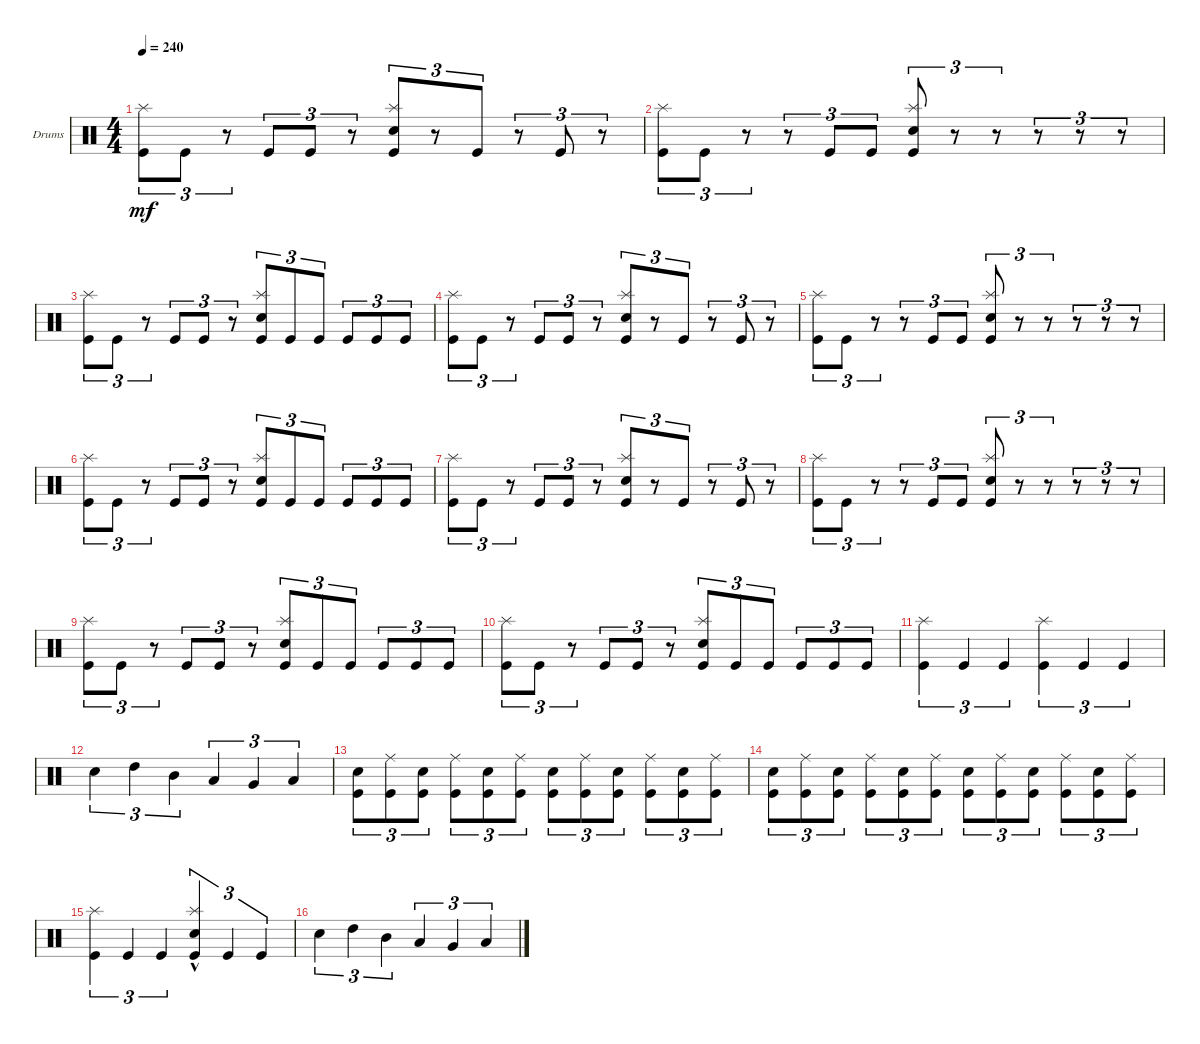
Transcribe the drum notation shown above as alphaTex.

\defaultSystemsLayout 4
\bracketExtendMode groupsimilarinstruments
\firstSystemTrackNameOrientation horizontal
\otherSystemsTrackNameOrientation horizontal
\track ("Drumkit" "Drums") {instrument percussion}
\staff {score}
\articulation defaults
\ts (4 4)
\tempo 240
\clef neutral
\ks c
("Kick (hit)" "Splash (hit)").8{tu (3 2) dy mf} "Kick (hit)".8{tu (3 2)} r.8{tu (3 2)} "Kick (hit)".8{tu (3 2)} "Kick (hit)".8{tu (3 2)} r.8{tu (3 2)} ("Kick (hit)" "Splash (hit)" "Snare (hit) 2").8{tu (3 2)} r.8{tu (3 2)} "Kick (hit)".8{tu (3 2)} r.8{tu (3 2)} "Kick (hit)".8{tu (3 2)} r.8{tu (3 2)} |
("Kick (hit)" "Splash (hit)").8{tu (3 2)} "Kick (hit)".8{tu (3 2)} r.8{tu (3 2)} r.8{tu (3 2)} "Kick (hit)".8{tu (3 2)} "Kick (hit)".8{tu (3 2)} ("Kick (hit)" "Splash (hit)" "Snare (hit) 2").8{tu (3 2)} r.8{tu (3 2)} r.8{tu (3 2)} r.8{tu (3 2)} r.8{tu (3 2)} r.8{tu (3 2)} |
("Kick (hit)" "Splash (hit)").8{tu (3 2)} "Kick (hit)".8{tu (3 2)} r.8{tu (3 2)} "Kick (hit)".8{tu (3 2)} "Kick (hit)".8{tu (3 2)} r.8{tu (3 2)} ("Kick (hit)" "Splash (hit)" "Snare (hit) 2").8{tu (3 2)} "Kick (hit)".8{tu (3 2)} "Kick (hit)".8{tu (3 2)} "Kick (hit)".8{tu (3 2)} "Kick (hit)".8{tu (3 2)} "Kick (hit)".8{tu (3 2)} |
("Kick (hit)" "Splash (hit)").8{tu (3 2)} "Kick (hit)".8{tu (3 2)} r.8{tu (3 2)} "Kick (hit)".8{tu (3 2)} "Kick (hit)".8{tu (3 2)} r.8{tu (3 2)} ("Kick (hit)" "Splash (hit)" "Snare (hit) 2").8{tu (3 2)} r.8{tu (3 2)} "Kick (hit)".8{tu (3 2)} r.8{tu (3 2)} "Kick (hit)".8{tu (3 2)} r.8{tu (3 2)} |
("Kick (hit)" "Splash (hit)").8{tu (3 2)} "Kick (hit)".8{tu (3 2)} r.8{tu (3 2)} r.8{tu (3 2)} "Kick (hit)".8{tu (3 2)} "Kick (hit)".8{tu (3 2)} ("Kick (hit)" "Splash (hit)" "Snare (hit) 2").8{tu (3 2)} r.8{tu (3 2)} r.8{tu (3 2)} r.8{tu (3 2)} r.8{tu (3 2)} r.8{tu (3 2)} |
("Kick (hit)" "Splash (hit)").8{tu (3 2)} "Kick (hit)".8{tu (3 2)} r.8{tu (3 2)} "Kick (hit)".8{tu (3 2)} "Kick (hit)".8{tu (3 2)} r.8{tu (3 2)} ("Kick (hit)" "Splash (hit)" "Snare (hit) 2").8{tu (3 2)} "Kick (hit)".8{tu (3 2)} "Kick (hit)".8{tu (3 2)} "Kick (hit)".8{tu (3 2)} "Kick (hit)".8{tu (3 2)} "Kick (hit)".8{tu (3 2)} |
("Kick (hit)" "Splash (hit)").8{tu (3 2)} "Kick (hit)".8{tu (3 2)} r.8{tu (3 2)} "Kick (hit)".8{tu (3 2)} "Kick (hit)".8{tu (3 2)} r.8{tu (3 2)} ("Kick (hit)" "Splash (hit)" "Snare (hit) 2").8{tu (3 2)} r.8{tu (3 2)} "Kick (hit)".8{tu (3 2)} r.8{tu (3 2)} "Kick (hit)".8{tu (3 2)} r.8{tu (3 2)} |
("Kick (hit)" "Splash (hit)").8{tu (3 2)} "Kick (hit)".8{tu (3 2)} r.8{tu (3 2)} r.8{tu (3 2)} "Kick (hit)".8{tu (3 2)} "Kick (hit)".8{tu (3 2)} ("Kick (hit)" "Splash (hit)" "Snare (hit) 2").8{tu (3 2)} r.8{tu (3 2)} r.8{tu (3 2)} r.8{tu (3 2)} r.8{tu (3 2)} r.8{tu (3 2)} |
("Kick (hit)" "Splash (hit)").8{tu (3 2)} "Kick (hit)".8{tu (3 2)} r.8{tu (3 2)} "Kick (hit)".8{tu (3 2)} "Kick (hit)".8{tu (3 2)} r.8{tu (3 2)} ("Kick (hit)" "Splash (hit)" "Snare (hit) 2").8{tu (3 2)} "Kick (hit)".8{tu (3 2)} "Kick (hit)".8{tu (3 2)} "Kick (hit)".8{tu (3 2)} "Kick (hit)".8{tu (3 2)} "Kick (hit)".8{tu (3 2)} |
("Kick (hit)" "Splash (hit)").8{tu (3 2)} "Kick (hit)".8{tu (3 2)} r.8{tu (3 2)} "Kick (hit)".8{tu (3 2)} "Kick (hit)".8{tu (3 2)} r.8{tu (3 2)} ("Kick (hit)" "Splash (hit)" "Snare (hit) 2").8{tu (3 2)} "Kick (hit)".8{tu (3 2)} "Kick (hit)".8{tu (3 2)} "Kick (hit)".8{tu (3 2)} "Kick (hit)".8{tu (3 2)} "Kick (hit)".8{tu (3 2)} |
("Kick (hit)" "Splash (hit)").4{tu (3 2)} "Kick (hit)".4{tu (3 2)} "Kick (hit)".4{tu (3 2)} ("Kick (hit)" "Splash (hit)").4{tu (3 2)} "Kick (hit)".4{tu (3 2)} "Kick (hit)".4{tu (3 2)} |
"Snare (hit) 2".4{tu (3 2)} "High Tom (hit)".4{tu (3 2)} "Mid Tom (hit)".4{tu (3 2)} "Low Tom (hit)".4{tu (3 2)} "Very Low Tom (hit)".4{tu (3 2)} "Low Tom (hit)".4{tu (3 2)} |
("Kick (hit)" "Snare (hit) 2").8{tu (3 2)} ("Kick (hit)" "Ride (middle)").8{tu (3 2)} ("Kick (hit)" "Snare (hit) 2").8{tu (3 2)} ("Kick (hit)" "Ride (middle)").8{tu (3 2)} ("Kick (hit)" "Snare (hit) 2").8{tu (3 2)} ("Kick (hit)" "Ride (middle)").8{tu (3 2)} ("Kick (hit)" "Snare (hit) 2").8{tu (3 2)} ("Kick (hit)" "Ride (middle)").8{tu (3 2)} ("Kick (hit)" "Snare (hit) 2").8{tu (3 2)} ("Kick (hit)" "Ride (middle)").8{tu (3 2)} ("Kick (hit)" "Snare (hit) 2").8{tu (3 2)} ("Kick (hit)" "Ride (middle)").8{tu (3 2)} |
("Kick (hit)" "Snare (hit) 2").8{tu (3 2)} ("Kick (hit)" "Ride (middle)").8{tu (3 2)} ("Kick (hit)" "Snare (hit) 2").8{tu (3 2)} ("Kick (hit)" "Ride (middle)").8{tu (3 2)} ("Kick (hit)" "Snare (hit) 2").8{tu (3 2)} ("Kick (hit)" "Ride (middle)").8{tu (3 2)} ("Kick (hit)" "Snare (hit) 2").8{tu (3 2)} ("Kick (hit)" "Ride (middle)").8{tu (3 2)} ("Kick (hit)" "Snare (hit) 2").8{tu (3 2)} ("Kick (hit)" "Ride (middle)").8{tu (3 2)} ("Kick (hit)" "Snare (hit) 2").8{tu (3 2)} ("Kick (hit)" "Ride (middle)").8{tu (3 2)} |
("Kick (hit)" "Splash (hit)").4{tu (3 2)} "Kick (hit)".4{tu (3 2)} "Kick (hit)".4{tu (3 2)} ("Kick (hit)" "Splash (hit)" "Snare (hit) 2"{hac}).4{tu (3 2)} "Kick (hit)".4{tu (3 2)} "Kick (hit)".4{tu (3 2)} |
"Snare (hit) 2".4{tu (3 2)} "High Tom (hit)".4{tu (3 2)} "Mid Tom (hit)".4{tu (3 2)} "Low Tom (hit)".4{tu (3 2)} "Very Low Tom (hit)".4{tu (3 2)} "Low Tom (hit)".4{tu (3 2)}
